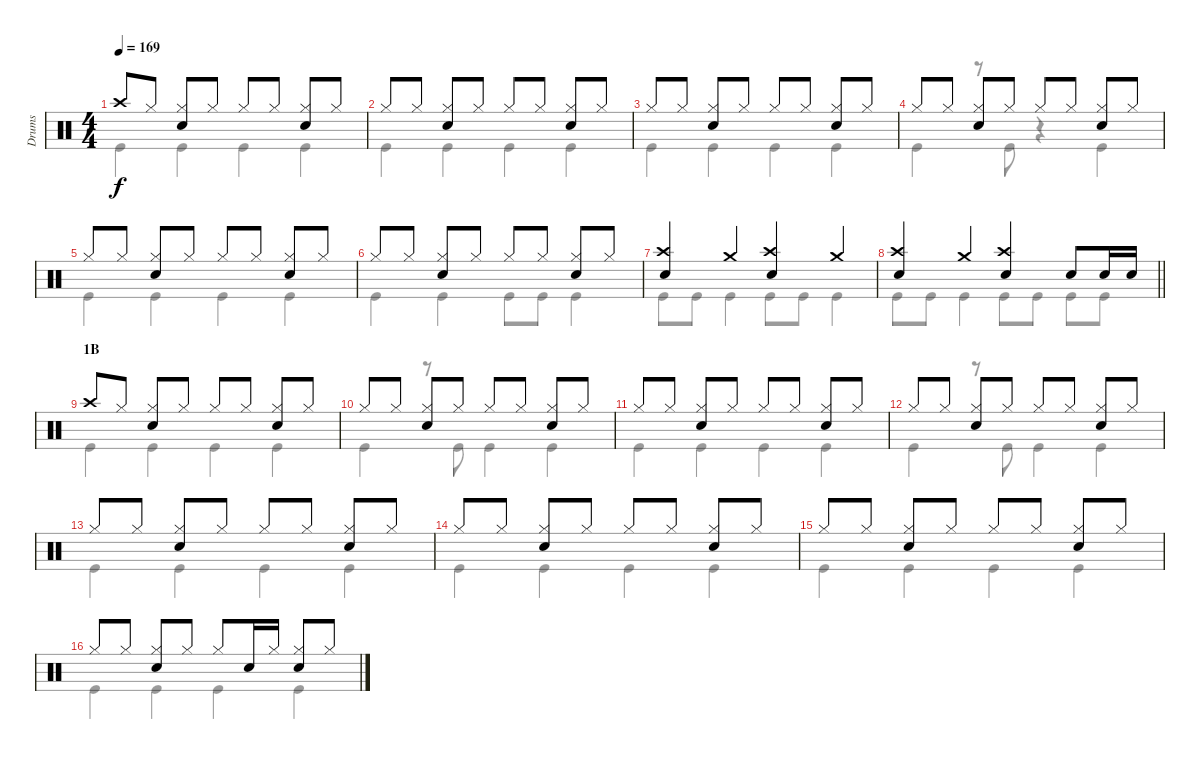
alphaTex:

\track ("Drums" "Drums") {instrument percussion}
\staff {score}
\articulation defaults
\voice
\ts (4 4)
\tempo 169
\clef neutral
\ks c "Crash high (hit)".8{dy f} "Hi-Hat (closed)".8
("Hi-Hat (closed)" "Snare (hit) 2").8 "Hi-Hat (closed)".8 "Hi-Hat (closed)".8 "Hi-Hat (closed)".8 ("Hi-Hat (closed)" "Snare (hit) 2").8 "Hi-Hat (closed)".8 |
"Hi-Hat (closed)".8 "Hi-Hat (closed)".8 ("Hi-Hat (closed)" "Snare (hit) 2").8 "Hi-Hat (closed)".8 "Hi-Hat (closed)".8 "Hi-Hat (closed)".8 ("Hi-Hat (closed)" "Snare (hit) 2").8 "Hi-Hat (closed)".8 |
"Hi-Hat (closed)".8 "Hi-Hat (closed)".8 ("Hi-Hat (closed)" "Snare (hit) 2").8 "Hi-Hat (closed)".8 "Hi-Hat (closed)".8 "Hi-Hat (closed)".8 ("Hi-Hat (closed)" "Snare (hit) 2").8 "Hi-Hat (closed)".8 |
"Hi-Hat (closed)".8 "Hi-Hat (closed)".8 ("Hi-Hat (closed)" "Snare (hit) 2").8 "Hi-Hat (closed)".8 "Hi-Hat (closed)".8 "Hi-Hat (closed)".8 ("Hi-Hat (closed)" "Snare (hit) 2").8 "Hi-Hat (closed)".8 |
"Hi-Hat (closed)".8 "Hi-Hat (closed)".8 ("Hi-Hat (closed)" "Snare (hit) 2").8 "Hi-Hat (closed)".8 "Hi-Hat (closed)".8 "Hi-Hat (closed)".8 ("Hi-Hat (closed)" "Snare (hit) 2").8 "Hi-Hat (closed)".8 |
"Hi-Hat (closed)".8 "Hi-Hat (closed)".8 ("Hi-Hat (closed)" "Snare (hit) 2").8 "Hi-Hat (closed)".8 "Hi-Hat (closed)".8 "Hi-Hat (closed)".8 ("Hi-Hat (closed)" "Snare (hit) 2").8 "Hi-Hat (closed)".8 |
("Crash high (hit)" "Snare (hit) 2").4 "Crash medium (hit)".4 ("Crash high (hit)" "Snare (hit) 2").4 "Crash medium (hit)".4 |
\barLineRight lightlight
("Crash high (hit)" "Snare (hit) 2").4 "Crash medium (hit)".4 ("Crash high (hit)" "Snare (hit) 2").4 "Snare (hit) 2".8 "Snare (hit) 2".16 "Snare (hit) 2".16 |
\section ("" "1B")
"Crash high (hit)".8 "Hi-Hat (closed)".8 ("Hi-Hat (closed)" "Snare (hit) 2").8 "Hi-Hat (closed)".8 "Hi-Hat (closed)".8 "Hi-Hat (closed)".8 ("Hi-Hat (closed)" "Snare (hit) 2").8 "Hi-Hat (closed)".8 |
"Hi-Hat (closed)".8 "Hi-Hat (closed)".8 ("Hi-Hat (closed)" "Snare (hit) 2").8 "Hi-Hat (closed)".8 "Hi-Hat (closed)".8 "Hi-Hat (closed)".8 ("Hi-Hat (closed)" "Snare (hit) 2").8 "Hi-Hat (closed)".8 |
"Hi-Hat (closed)".8 "Hi-Hat (closed)".8 ("Hi-Hat (closed)" "Snare (hit) 2").8 "Hi-Hat (closed)".8 "Hi-Hat (closed)".8 "Hi-Hat (closed)".8 ("Hi-Hat (closed)" "Snare (hit) 2").8 "Hi-Hat (closed)".8 |
"Hi-Hat (closed)".8 "Hi-Hat (closed)".8 ("Hi-Hat (closed)" "Snare (hit) 2").8 "Hi-Hat (closed)".8 "Hi-Hat (closed)".8 "Hi-Hat (closed)".8 ("Hi-Hat (closed)" "Snare (hit) 2").8 "Hi-Hat (closed)".8 |
"Hi-Hat (closed)".8 "Hi-Hat (closed)".8 ("Hi-Hat (closed)" "Snare (hit) 2").8 "Hi-Hat (closed)".8 "Hi-Hat (closed)".8 "Hi-Hat (closed)".8 ("Hi-Hat (closed)" "Snare (hit) 2").8 "Hi-Hat (closed)".8 |
"Hi-Hat (closed)".8 "Hi-Hat (closed)".8 ("Hi-Hat (closed)" "Snare (hit) 2").8 "Hi-Hat (closed)".8 "Hi-Hat (closed)".8 "Hi-Hat (closed)".8 ("Hi-Hat (closed)" "Snare (hit) 2").8 "Hi-Hat (closed)".8 |
"Hi-Hat (closed)".8 "Hi-Hat (closed)".8 ("Hi-Hat (closed)" "Snare (hit) 2").8 "Hi-Hat (closed)".8 "Hi-Hat (closed)".8 "Hi-Hat (closed)".8 ("Hi-Hat (closed)" "Snare (hit) 2").8 "Hi-Hat (closed)".8 |
"Hi-Hat (closed)".8 "Hi-Hat (closed)".8 ("Hi-Hat (closed)" "Snare (hit) 2").8 "Hi-Hat (closed)".8 "Hi-Hat (closed)".8 "Snare (hit) 2".16 "Hi-Hat (closed)".16 ("Hi-Hat (closed)" "Snare (hit) 2").8 "Hi-Hat (closed)".8
\voice
\clef neutral
\ottava regular
\simile none
\ks c "Kick (hit)".4{dy f} "Kick (hit)".4 "Kick (hit)".4 "Kick (hit)".4
|
"Kick (hit)".4 "Kick (hit)".4 "Kick (hit)".4 "Kick (hit)".4 |
"Kick (hit)".4 "Kick (hit)".4 "Kick (hit)".4 "Kick (hit)".4 |
"Kick (hit)".4 r.8 "Kick (hit)".8 r.4 "Kick (hit)".4 |
"Kick (hit)".4 "Kick (hit)".4 "Kick (hit)".4 "Kick (hit)".4 |
"Kick (hit)".4 "Kick (hit)".4 "Kick (hit)".8 "Kick (hit)".8 "Kick (hit)".4 |
"Kick (hit)".8 "Kick (hit)".8 "Kick (hit)".4 "Kick (hit)".8 "Kick (hit)".8 "Kick (hit)".4 |
\barLineRight lightlight "Kick (hit)".8 "Kick (hit)".8 "Kick (hit)".4 "Kick (hit)".8 "Kick (hit)".8 "Kick (hit)".8 "Kick (hit)".8
|
"Kick (hit)".4 "Kick (hit)".4 "Kick (hit)".4 "Kick (hit)".4 |
"Kick (hit)".4 r.8 "Kick (hit)".8 "Kick (hit)".4 "Kick (hit)".4 |
"Kick (hit)".4 "Kick (hit)".4 "Kick (hit)".4 "Kick (hit)".4 |
"Kick (hit)".4 r.8 "Kick (hit)".8 "Kick (hit)".4 "Kick (hit)".4 |
"Kick (hit)".4 "Kick (hit)".4 "Kick (hit)".4 "Kick (hit)".4 |
"Kick (hit)".4 "Kick (hit)".4 "Kick (hit)".4 "Kick (hit)".4 |
"Kick (hit)".4 "Kick (hit)".4 "Kick (hit)".4 "Kick (hit)".4 |
"Kick (hit)".4 "Kick (hit)".4 "Kick (hit)".4 "Kick (hit)".4
